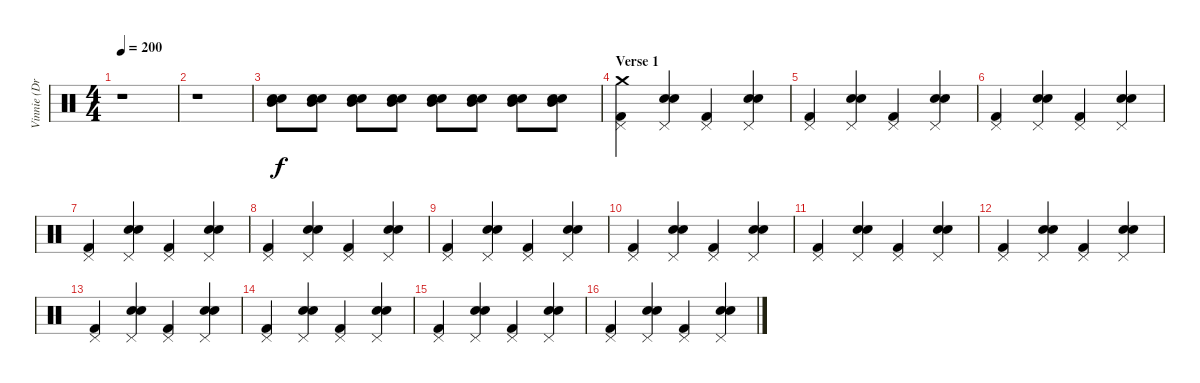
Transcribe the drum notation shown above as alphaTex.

\track ("Vinnie (Drums)" "Vinnie (Dr") {instrument percussion}
\staff {score}
\articulation defaults
\ts (4 4)
\tempo 200
\clef neutral
\ks c
r.1{dy f} |
r.1 |
("Electric Snare (hit)" "Snare (hit) 2" "Mid Tom (hit)").8 ("Electric Snare (hit)" "Snare (hit) 2" "Mid Tom (hit)").8 ("Electric Snare (hit)" "Snare (hit) 2" "Mid Tom (hit)").8 ("Electric Snare (hit)" "Snare (hit) 2" "Mid Tom (hit)").8 ("Electric Snare (hit)" "Snare (hit) 2" "Mid Tom (hit)").8 ("Electric Snare (hit)" "Snare (hit) 2" "Mid Tom (hit)").8 ("Electric Snare (hit)" "Snare (hit) 2" "Mid Tom (hit)").8 ("Electric Snare (hit)" "Snare (hit) 2" "Mid Tom (hit)").8 |
\section ("" "Verse 1")
("Kick (hit) 2" "Pedal Hi-Hat (hit)" "Crash medium (hit)").4 ("Snare (hit) 2" "Electric Snare (hit)" "Pedal Hi-Hat (hit)").4 ("Kick (hit) 2" "Pedal Hi-Hat (hit)").4 ("Snare (hit) 2" "Electric Snare (hit)" "Pedal Hi-Hat (hit)").4 |
("Kick (hit) 2" "Pedal Hi-Hat (hit)").4 ("Snare (hit) 2" "Electric Snare (hit)" "Pedal Hi-Hat (hit)").4 ("Kick (hit) 2" "Pedal Hi-Hat (hit)").4 ("Snare (hit) 2" "Electric Snare (hit)" "Pedal Hi-Hat (hit)").4 |
("Kick (hit) 2" "Pedal Hi-Hat (hit)").4 ("Snare (hit) 2" "Electric Snare (hit)" "Pedal Hi-Hat (hit)").4 ("Kick (hit) 2" "Pedal Hi-Hat (hit)").4 ("Snare (hit) 2" "Electric Snare (hit)" "Pedal Hi-Hat (hit)").4 |
("Kick (hit) 2" "Pedal Hi-Hat (hit)").4 ("Snare (hit) 2" "Electric Snare (hit)" "Pedal Hi-Hat (hit)").4 ("Kick (hit) 2" "Pedal Hi-Hat (hit)").4 ("Snare (hit) 2" "Electric Snare (hit)" "Pedal Hi-Hat (hit)").4 |
("Kick (hit) 2" "Pedal Hi-Hat (hit)").4 ("Snare (hit) 2" "Electric Snare (hit)" "Pedal Hi-Hat (hit)").4 ("Kick (hit) 2" "Pedal Hi-Hat (hit)").4 ("Snare (hit) 2" "Electric Snare (hit)" "Pedal Hi-Hat (hit)").4 |
("Kick (hit) 2" "Pedal Hi-Hat (hit)").4 ("Snare (hit) 2" "Electric Snare (hit)" "Pedal Hi-Hat (hit)").4 ("Kick (hit) 2" "Pedal Hi-Hat (hit)").4 ("Snare (hit) 2" "Electric Snare (hit)" "Pedal Hi-Hat (hit)").4 |
("Kick (hit) 2" "Pedal Hi-Hat (hit)").4 ("Snare (hit) 2" "Electric Snare (hit)" "Pedal Hi-Hat (hit)").4 ("Kick (hit) 2" "Pedal Hi-Hat (hit)").4 ("Snare (hit) 2" "Electric Snare (hit)" "Pedal Hi-Hat (hit)").4 |
("Kick (hit) 2" "Pedal Hi-Hat (hit)").4 ("Snare (hit) 2" "Electric Snare (hit)" "Pedal Hi-Hat (hit)").4 ("Kick (hit) 2" "Pedal Hi-Hat (hit)").4 ("Snare (hit) 2" "Electric Snare (hit)" "Pedal Hi-Hat (hit)").4 |
("Kick (hit) 2" "Pedal Hi-Hat (hit)").4 ("Snare (hit) 2" "Electric Snare (hit)" "Pedal Hi-Hat (hit)").4 ("Kick (hit) 2" "Pedal Hi-Hat (hit)").4 ("Snare (hit) 2" "Electric Snare (hit)" "Pedal Hi-Hat (hit)").4 |
("Kick (hit) 2" "Pedal Hi-Hat (hit)").4 ("Snare (hit) 2" "Electric Snare (hit)" "Pedal Hi-Hat (hit)").4 ("Kick (hit) 2" "Pedal Hi-Hat (hit)").4 ("Snare (hit) 2" "Electric Snare (hit)" "Pedal Hi-Hat (hit)").4 |
("Kick (hit) 2" "Pedal Hi-Hat (hit)").4 ("Snare (hit) 2" "Electric Snare (hit)" "Pedal Hi-Hat (hit)").4 ("Kick (hit) 2" "Pedal Hi-Hat (hit)").4 ("Snare (hit) 2" "Electric Snare (hit)" "Pedal Hi-Hat (hit)").4 |
("Kick (hit) 2" "Pedal Hi-Hat (hit)").4 ("Snare (hit) 2" "Electric Snare (hit)" "Pedal Hi-Hat (hit)").4 ("Kick (hit) 2" "Pedal Hi-Hat (hit)").4 ("Snare (hit) 2" "Electric Snare (hit)" "Pedal Hi-Hat (hit)").4 |
("Kick (hit) 2" "Pedal Hi-Hat (hit)").4 ("Snare (hit) 2" "Electric Snare (hit)" "Pedal Hi-Hat (hit)").4 ("Kick (hit) 2" "Pedal Hi-Hat (hit)").4 ("Snare (hit) 2" "Electric Snare (hit)" "Pedal Hi-Hat (hit)").4
